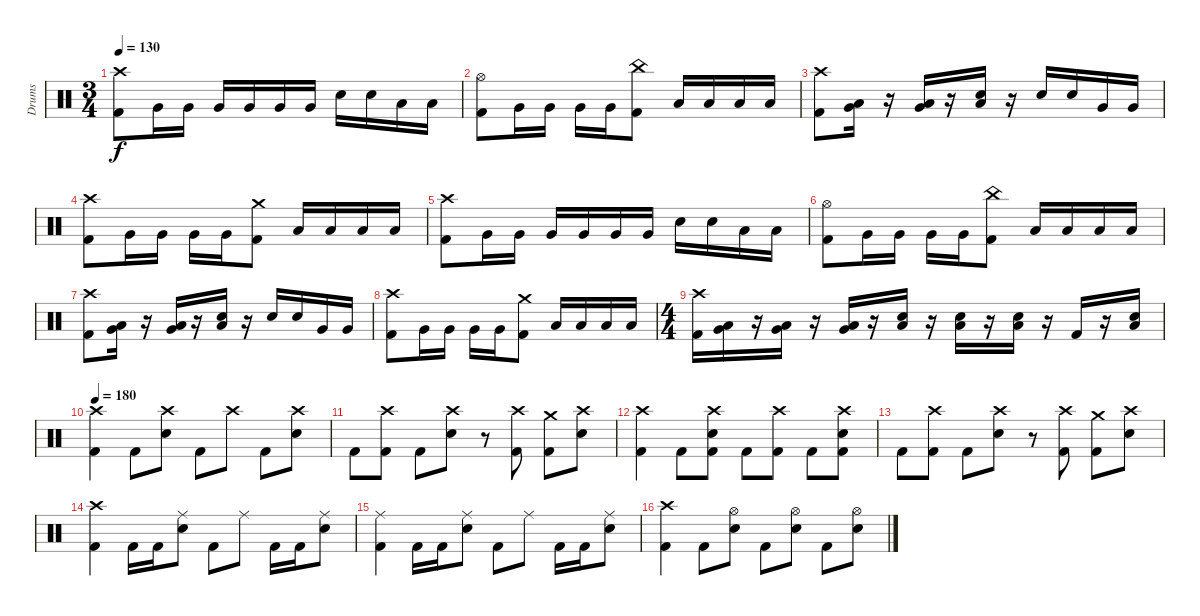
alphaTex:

\track ("Drums" "Drums") {instrument percussion}
\staff {score}
\articulation defaults
\ts (3 4)
\tempo 130
\clef neutral
\ks c
("Crash high (hit)" "Kick (hit) 2").8{dy f} "Very Low Tom (hit)".16 "Very Low Tom (hit)".16 "Very Low Tom (hit)".16 "Very Low Tom (hit)".16 "Very Low Tom (hit)".16 "Very Low Tom (hit)".16 "Electric Snare (hit)".16 "Electric Snare (hit)".16 "Low Floor Tom (hit)".16 "Low Floor Tom (hit)".16 |
("Hi-Hat (open)" "Kick (hit) 2").8 "Very Low Tom (hit)".16 "Very Low Tom (hit)".16 "Very Low Tom (hit)".16 "Very Low Tom (hit)".16 ("China (hit)" "Kick (hit) 2").8 "Low Floor Tom (hit)".16 "Low Floor Tom (hit)".16 "Low Floor Tom (hit)".16 "Low Floor Tom (hit)".16 |
("Crash high (hit)" "Kick (hit) 2").8 ("Very Low Tom (hit)" "Low Floor Tom (hit)").16 r.16 ("Very Low Tom (hit)" "Low Floor Tom (hit)").16 r.16 ("Electric Snare (hit)" "Low Floor Tom (hit)").16 r.16 "Electric Snare (hit)".16 "Electric Snare (hit)".16 "Very Low Tom (hit)".16 "Very Low Tom (hit)".16 |
("Crash high (hit)" "Kick (hit) 2").8 "Very Low Tom (hit)".16 "Very Low Tom (hit)".16 "Very Low Tom (hit)".16 "Very Low Tom (hit)".16 ("Crash medium (hit)" "Kick (hit) 2").8 "Low Floor Tom (hit)".16 "Low Floor Tom (hit)".16 "Low Floor Tom (hit)".16 "Low Floor Tom (hit)".16 |
("Crash high (hit)" "Kick (hit) 2").8 "Very Low Tom (hit)".16 "Very Low Tom (hit)".16 "Very Low Tom (hit)".16 "Very Low Tom (hit)".16 "Very Low Tom (hit)".16 "Very Low Tom (hit)".16 "Electric Snare (hit)".16 "Electric Snare (hit)".16 "Low Floor Tom (hit)".16 "Low Floor Tom (hit)".16 |
("Hi-Hat (open)" "Kick (hit) 2").8 "Very Low Tom (hit)".16 "Very Low Tom (hit)".16 "Very Low Tom (hit)".16 "Very Low Tom (hit)".16 ("China (hit)" "Kick (hit) 2").8 "Low Floor Tom (hit)".16 "Low Floor Tom (hit)".16 "Low Floor Tom (hit)".16 "Low Floor Tom (hit)".16 |
("Crash high (hit)" "Kick (hit) 2").8 ("Very Low Tom (hit)" "Low Floor Tom (hit)").16 r.16 ("Very Low Tom (hit)" "Low Floor Tom (hit)").16 r.16 ("Electric Snare (hit)" "Low Floor Tom (hit)").16 r.16 "Electric Snare (hit)".16 "Electric Snare (hit)".16 "Very Low Tom (hit)".16 "Very Low Tom (hit)".16 |
("Crash high (hit)" "Kick (hit) 2").8 "Very Low Tom (hit)".16 "Very Low Tom (hit)".16 "Very Low Tom (hit)".16 "Very Low Tom (hit)".16 ("Crash medium (hit)" "Kick (hit) 2").8 "Low Floor Tom (hit)".16 "Low Floor Tom (hit)".16 "Low Floor Tom (hit)".16 "Low Floor Tom (hit)".16 |
\ts (4 4)
("Crash high (hit)" "Kick (hit) 2").16 ("Low Floor Tom (hit)" "Very Low Tom (hit)").16 r.16 ("Low Floor Tom (hit)" "Very Low Tom (hit)").16 r.16 ("Low Floor Tom (hit)" "Very Low Tom (hit)").16 r.16 ("Low Floor Tom (hit)" "Electric Snare (hit)").16 r.16 ("Low Floor Tom (hit)" "Electric Snare (hit)").16 r.16 ("Low Floor Tom (hit)" "Electric Snare (hit)").16 r.16 "Kick (hit) 2".16 r.16 ("Low Floor Tom (hit)" "Electric Snare (hit)").16 |
\tempo 180
("Crash high (hit)" "Kick (hit) 2").4 "Kick (hit) 2".8 ("Crash high (hit)" "Electric Snare (hit)").8 "Kick (hit) 2".8 "Crash high (hit)".8 "Kick (hit) 2".8 ("Crash high (hit)" "Electric Snare (hit)").8 |
"Kick (hit) 2".8 ("Crash high (hit)" "Kick (hit) 2").8 "Kick (hit) 2".8 ("Crash high (hit)" "Electric Snare (hit)").8 r.8 ("Crash high (hit)" "Kick (hit) 2").8 ("Crash medium (hit)" "Kick (hit) 2").8 ("Crash high (hit)" "Electric Snare (hit)").8 |
("Crash high (hit)" "Kick (hit) 2").4 "Kick (hit) 2".8 ("Crash high (hit)" "Electric Snare (hit)" "Kick (hit) 2").8 "Kick (hit) 2".8 ("Crash high (hit)" "Kick (hit) 2").8 "Kick (hit) 2".8 ("Crash high (hit)" "Electric Snare (hit)" "Kick (hit) 2").8 |
"Kick (hit) 2".8 ("Crash high (hit)" "Kick (hit) 2").8 "Kick (hit) 2".8 ("Crash high (hit)" "Electric Snare (hit)").8 r.8 ("Crash high (hit)" "Kick (hit) 2").8 ("Crash medium (hit)" "Kick (hit) 2").8 ("Crash high (hit)" "Electric Snare (hit)").8 |
("Crash high (hit)" "Kick (hit) 2").4 "Kick (hit) 2".16 "Kick (hit) 2".16 ("Ride (middle)" "Electric Snare (hit)").8 "Kick (hit) 2".8 "Ride (middle)".8 "Kick (hit) 2".16 "Kick (hit) 2".16 ("Ride (middle)" "Electric Snare (hit)").8 |
("Ride (middle)" "Kick (hit) 2").4 "Kick (hit) 2".16 "Kick (hit) 2".16 ("Ride (middle)" "Electric Snare (hit)").8 "Kick (hit) 2".8 "Ride (middle)".8 "Kick (hit) 2".16 "Kick (hit) 2".16 ("Ride (middle)" "Electric Snare (hit)").8 |
("Crash high (hit)" "Kick (hit) 2").4 "Kick (hit) 2".8 ("Hi-Hat (open)" "Electric Snare (hit)").8 "Kick (hit) 2".8 ("Hi-Hat (open)" "Electric Snare (hit)").8 "Kick (hit) 2".8 ("Hi-Hat (open)" "Electric Snare (hit)").8
